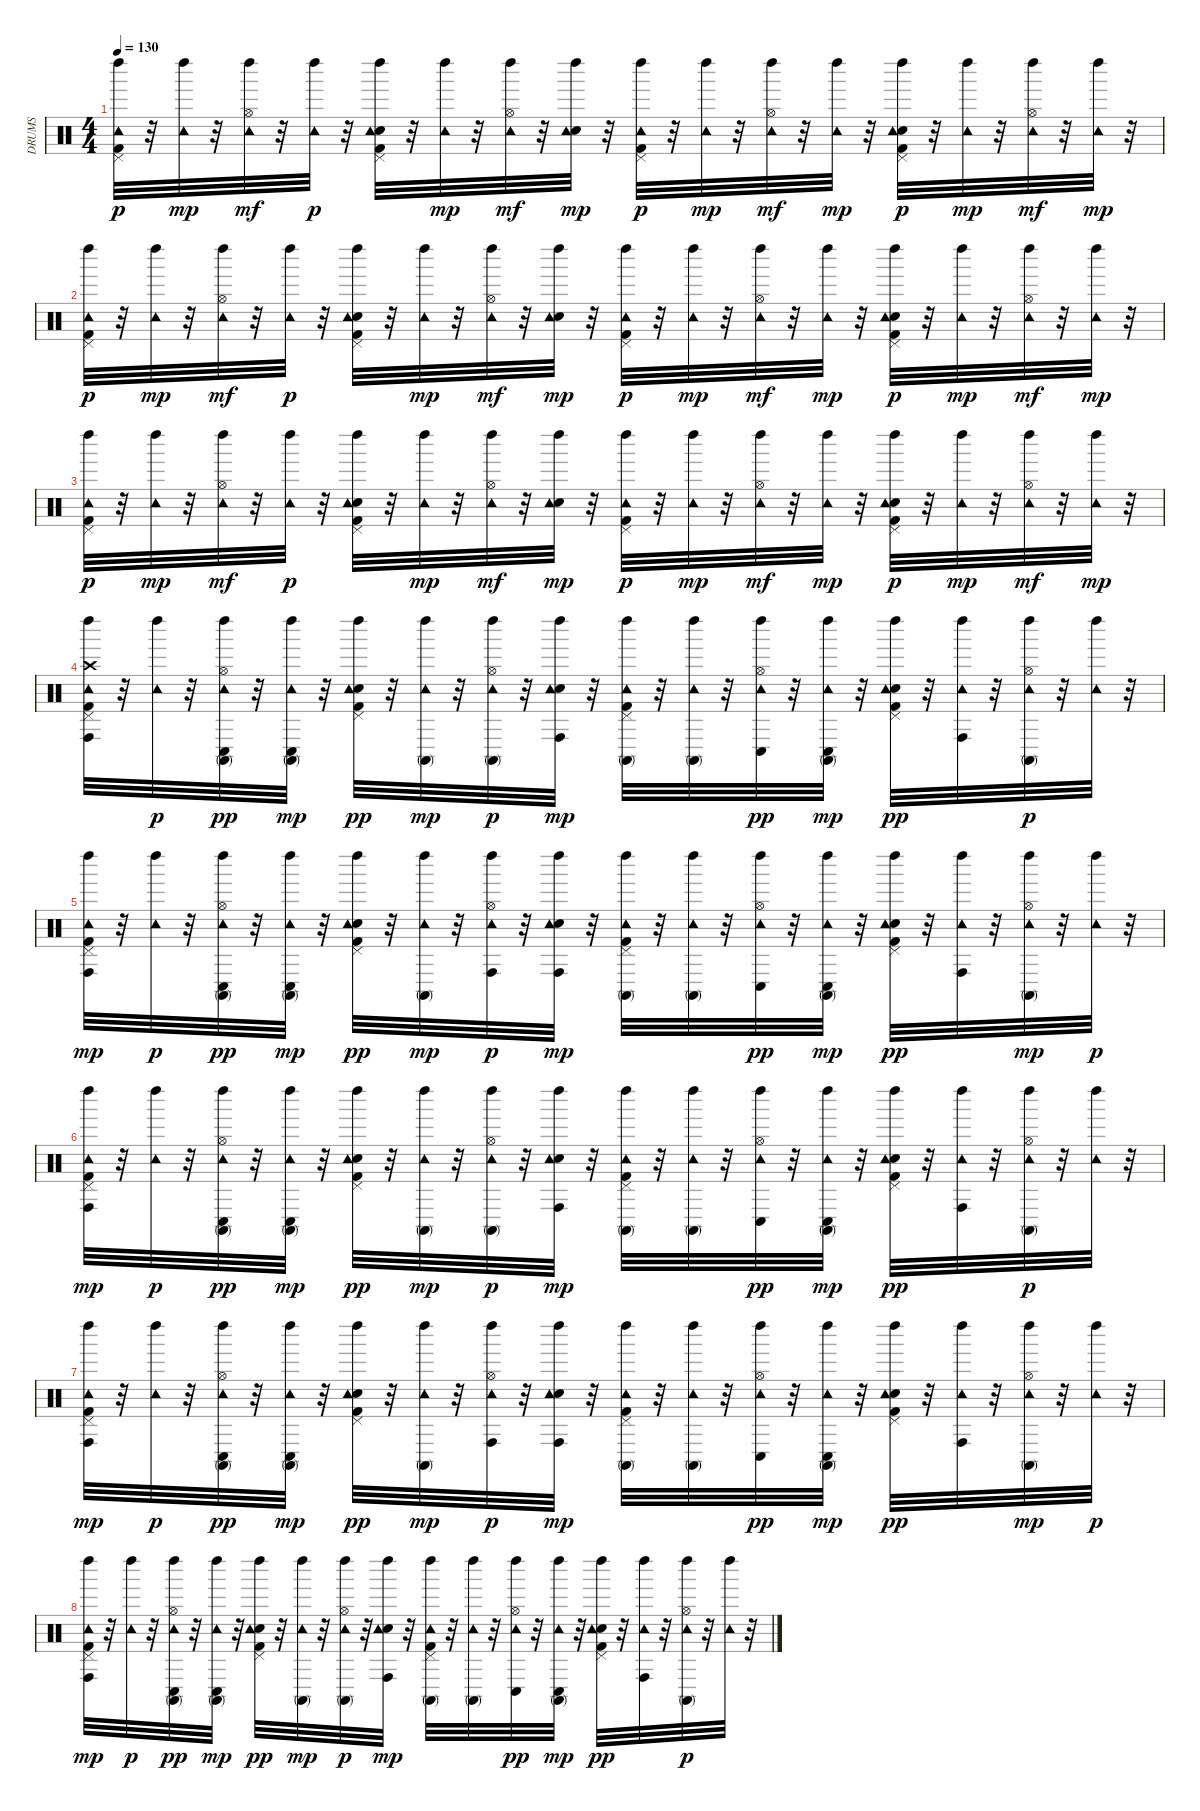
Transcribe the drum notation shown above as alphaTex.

\track ("DRUMS" "DRUMS") {instrument percussion}
\staff {score}
\articulation defaults
\ts (4 4)
\tempo 130
\clef neutral
\ks c
("Kick (hit) 2" "Pedal Hi-Hat (hit)" "Left Maraca (hit)" "Tambourine (hit)").32{dy p} r.32 ("Left Maraca (hit)" "Tambourine (hit)").32{dy mp} r.32 ("Hi-Hat (open)" "Left Maraca (hit)" "Tambourine (hit)").32{dy mf} r.32 ("Left Maraca (hit)" "Tambourine (hit)").32{dy p} r.32 ("Kick (hit) 2" "Electric Snare (hit)" "Pedal Hi-Hat (hit)" "Left Maraca (hit)" "Tambourine (hit)").32 r.32 ("Left Maraca (hit)" "Tambourine (hit)").32{dy mp} r.32 ("Hi-Hat (open)" "Left Maraca (hit)" "Tambourine (hit)").32{dy mf} r.32 ("Electric Snare (hit)" "Left Maraca (hit)" "Tambourine (hit)").32{dy mp} r.32 ("Kick (hit) 2" "Pedal Hi-Hat (hit)" "Left Maraca (hit)" "Tambourine (hit)").32{dy p} r.32 ("Left Maraca (hit)" "Tambourine (hit)").32{dy mp} r.32 ("Hi-Hat (open)" "Left Maraca (hit)" "Tambourine (hit)").32{dy mf} r.32 ("Left Maraca (hit)" "Tambourine (hit)").32{dy mp} r.32 ("Kick (hit) 2" "Electric Snare (hit)" "Pedal Hi-Hat (hit)" "Left Maraca (hit)" "Tambourine (hit)").32{dy p} r.32 ("Left Maraca (hit)" "Tambourine (hit)").32{dy mp} r.32 ("Hi-Hat (open)" "Left Maraca (hit)" "Tambourine (hit)").32{dy mf} r.32 ("Left Maraca (hit)" "Tambourine (hit)").32{dy mp} r.32 |
("Kick (hit) 2" "Pedal Hi-Hat (hit)" "Left Maraca (hit)" "Tambourine (hit)").32{dy p} r.32 ("Left Maraca (hit)" "Tambourine (hit)").32{dy mp} r.32 ("Hi-Hat (open)" "Left Maraca (hit)" "Tambourine (hit)").32{dy mf} r.32 ("Left Maraca (hit)" "Tambourine (hit)").32{dy p} r.32 ("Kick (hit) 2" "Electric Snare (hit)" "Pedal Hi-Hat (hit)" "Left Maraca (hit)" "Tambourine (hit)").32 r.32 ("Left Maraca (hit)" "Tambourine (hit)").32{dy mp} r.32 ("Hi-Hat (open)" "Left Maraca (hit)" "Tambourine (hit)").32{dy mf} r.32 ("Electric Snare (hit)" "Left Maraca (hit)" "Tambourine (hit)").32{dy mp} r.32 ("Kick (hit) 2" "Pedal Hi-Hat (hit)" "Left Maraca (hit)" "Tambourine (hit)").32{dy p} r.32 ("Left Maraca (hit)" "Tambourine (hit)").32{dy mp} r.32 ("Hi-Hat (open)" "Left Maraca (hit)" "Tambourine (hit)").32{dy mf} r.32 ("Left Maraca (hit)" "Tambourine (hit)").32{dy mp} r.32 ("Kick (hit) 2" "Electric Snare (hit)" "Pedal Hi-Hat (hit)" "Left Maraca (hit)" "Tambourine (hit)").32{dy p} r.32 ("Left Maraca (hit)" "Tambourine (hit)").32{dy mp} r.32 ("Hi-Hat (open)" "Left Maraca (hit)" "Tambourine (hit)").32{dy mf} r.32 ("Left Maraca (hit)" "Tambourine (hit)").32{dy mp} r.32 |
("Kick (hit) 2" "Pedal Hi-Hat (hit)" "Left Maraca (hit)" "Tambourine (hit)").32{dy p} r.32 ("Left Maraca (hit)" "Tambourine (hit)").32{dy mp} r.32 ("Hi-Hat (open)" "Left Maraca (hit)" "Tambourine (hit)").32{dy mf} r.32 ("Left Maraca (hit)" "Tambourine (hit)").32{dy p} r.32 ("Kick (hit) 2" "Electric Snare (hit)" "Pedal Hi-Hat (hit)" "Left Maraca (hit)" "Tambourine (hit)").32 r.32 ("Left Maraca (hit)" "Tambourine (hit)").32{dy mp} r.32 ("Hi-Hat (open)" "Left Maraca (hit)" "Tambourine (hit)").32{dy mf} r.32 ("Electric Snare (hit)" "Left Maraca (hit)" "Tambourine (hit)").32{dy mp} r.32 ("Kick (hit) 2" "Pedal Hi-Hat (hit)" "Left Maraca (hit)" "Tambourine (hit)").32{dy p} r.32 ("Left Maraca (hit)" "Tambourine (hit)").32{dy mp} r.32 ("Hi-Hat (open)" "Left Maraca (hit)" "Tambourine (hit)").32{dy mf} r.32 ("Left Maraca (hit)" "Tambourine (hit)").32{dy mp} r.32 ("Kick (hit) 2" "Electric Snare (hit)" "Pedal Hi-Hat (hit)" "Left Maraca (hit)" "Tambourine (hit)").32{dy p} r.32 ("Left Maraca (hit)" "Tambourine (hit)").32{dy mp} r.32 ("Hi-Hat (open)" "Left Maraca (hit)" "Tambourine (hit)").32{dy mf} r.32 ("Left Maraca (hit)" "Tambourine (hit)").32{dy mp} r.32 |
("Kick (hit) 2" "Pedal Hi-Hat (hit)" "Left Maraca (hit)" "Crash high (hit)" "Tambourine (hit)" "Conga high (hit)").32 r.32 ("Left Maraca (hit)" "Tambourine (hit)").32{dy p} r.32 ("Hi-Hat (open)" "Left Maraca (hit)" "Tambourine (hit)" "Conga high (mute)" "Conga low (hit)").32{dy pp} r.32 ("Left Maraca (hit)" "Tambourine (hit)" "Conga high (mute)" "Conga low (hit)").32{dy mp} r.32 ("Kick (hit) 2" "Electric Snare (hit)" "Pedal Hi-Hat (hit)" "Left Maraca (hit)" "Tambourine (hit)").32{dy pp} r.32 ("Left Maraca (hit)" "Tambourine (hit)" "Conga high (mute)").32{dy mp} r.32 ("Hi-Hat (open)" "Left Maraca (hit)" "Tambourine (hit)" "Conga high (mute)").32{dy p} r.32 ("Electric Snare (hit)" "Left Maraca (hit)" "Tambourine (hit)" "Conga high (hit)").32{dy mp} r.32 ("Kick (hit) 2" "Pedal Hi-Hat (hit)" "Left Maraca (hit)" "Tambourine (hit)" "Conga high (mute)").32 r.32 ("Left Maraca (hit)" "Tambourine (hit)" "Conga high (mute)").32 r.32 ("Hi-Hat (open)" "Left Maraca (hit)" "Tambourine (hit)" "Conga low (hit)").32{dy pp} r.32 ("Left Maraca (hit)" "Tambourine (hit)" "Conga high (mute)" "Conga low (hit)").32{dy mp} r.32 ("Kick (hit) 2" "Electric Snare (hit)" "Pedal Hi-Hat (hit)" "Left Maraca (hit)" "Tambourine (hit)").32{dy pp} r.32 ("Left Maraca (hit)" "Tambourine (hit)" "Conga high (hit)").32 r.32 ("Hi-Hat (open)" "Left Maraca (hit)" "Tambourine (hit)" "Conga high (mute)").32{dy p} r.32 ("Left Maraca (hit)" "Tambourine (hit)").32 r.32 |
("Kick (hit) 2" "Pedal Hi-Hat (hit)" "Left Maraca (hit)" "Tambourine (hit)" "Conga high (hit)").32{dy mp} r.32 ("Left Maraca (hit)" "Tambourine (hit)").32{dy p} r.32 ("Hi-Hat (open)" "Left Maraca (hit)" "Tambourine (hit)" "Conga high (mute)" "Conga low (hit)").32{dy pp} r.32 ("Left Maraca (hit)" "Tambourine (hit)" "Conga high (mute)" "Conga low (hit)").32{dy mp} r.32 ("Kick (hit) 2" "Electric Snare (hit)" "Pedal Hi-Hat (hit)" "Left Maraca (hit)" "Tambourine (hit)").32{dy pp} r.32 ("Left Maraca (hit)" "Tambourine (hit)" "Conga high (mute)").32{dy mp} r.32 ("Hi-Hat (open)" "Left Maraca (hit)" "Tambourine (hit)" "Conga high (hit)").32{dy p} r.32 ("Electric Snare (hit)" "Left Maraca (hit)" "Tambourine (hit)" "Conga high (hit)").32{dy mp} r.32 ("Kick (hit) 2" "Pedal Hi-Hat (hit)" "Left Maraca (hit)" "Tambourine (hit)" "Conga high (mute)").32 r.32 ("Left Maraca (hit)" "Tambourine (hit)" "Conga high (mute)").32 r.32 ("Hi-Hat (open)" "Left Maraca (hit)" "Tambourine (hit)" "Conga low (hit)").32{dy pp} r.32 ("Left Maraca (hit)" "Tambourine (hit)" "Conga high (mute)" "Conga low (hit)").32{dy mp} r.32 ("Kick (hit) 2" "Electric Snare (hit)" "Pedal Hi-Hat (hit)" "Left Maraca (hit)" "Tambourine (hit)").32{dy pp} r.32 ("Left Maraca (hit)" "Tambourine (hit)" "Conga high (hit)").32 r.32 ("Hi-Hat (open)" "Left Maraca (hit)" "Tambourine (hit)" "Conga high (mute)").32{dy mp} r.32 ("Left Maraca (hit)" "Tambourine (hit)").32{dy p} r.32 |
("Kick (hit) 2" "Pedal Hi-Hat (hit)" "Left Maraca (hit)" "Tambourine (hit)" "Conga high (hit)").32{dy mp} r.32 ("Left Maraca (hit)" "Tambourine (hit)").32{dy p} r.32 ("Hi-Hat (open)" "Left Maraca (hit)" "Tambourine (hit)" "Conga high (mute)" "Conga low (hit)").32{dy pp} r.32 ("Left Maraca (hit)" "Tambourine (hit)" "Conga high (mute)" "Conga low (hit)").32{dy mp} r.32 ("Kick (hit) 2" "Electric Snare (hit)" "Pedal Hi-Hat (hit)" "Left Maraca (hit)" "Tambourine (hit)").32{dy pp} r.32 ("Left Maraca (hit)" "Tambourine (hit)" "Conga high (mute)").32{dy mp} r.32 ("Hi-Hat (open)" "Left Maraca (hit)" "Tambourine (hit)" "Conga high (mute)").32{dy p} r.32 ("Electric Snare (hit)" "Left Maraca (hit)" "Tambourine (hit)" "Conga high (hit)").32{dy mp} r.32 ("Kick (hit) 2" "Pedal Hi-Hat (hit)" "Left Maraca (hit)" "Tambourine (hit)" "Conga high (mute)").32 r.32 ("Left Maraca (hit)" "Tambourine (hit)" "Conga high (mute)").32 r.32 ("Hi-Hat (open)" "Left Maraca (hit)" "Tambourine (hit)" "Conga low (hit)").32{dy pp} r.32 ("Left Maraca (hit)" "Tambourine (hit)" "Conga high (mute)" "Conga low (hit)").32{dy mp} r.32 ("Kick (hit) 2" "Electric Snare (hit)" "Pedal Hi-Hat (hit)" "Left Maraca (hit)" "Tambourine (hit)").32{dy pp} r.32 ("Left Maraca (hit)" "Tambourine (hit)" "Conga high (hit)").32 r.32 ("Hi-Hat (open)" "Left Maraca (hit)" "Tambourine (hit)" "Conga high (mute)").32{dy p} r.32 ("Left Maraca (hit)" "Tambourine (hit)").32 r.32 |
("Kick (hit) 2" "Pedal Hi-Hat (hit)" "Left Maraca (hit)" "Tambourine (hit)" "Conga high (hit)").32{dy mp} r.32 ("Left Maraca (hit)" "Tambourine (hit)").32{dy p} r.32 ("Hi-Hat (open)" "Left Maraca (hit)" "Tambourine (hit)" "Conga high (mute)" "Conga low (hit)").32{dy pp} r.32 ("Left Maraca (hit)" "Tambourine (hit)" "Conga high (mute)" "Conga low (hit)").32{dy mp} r.32 ("Kick (hit) 2" "Electric Snare (hit)" "Pedal Hi-Hat (hit)" "Left Maraca (hit)" "Tambourine (hit)").32{dy pp} r.32 ("Left Maraca (hit)" "Tambourine (hit)" "Conga high (mute)").32{dy mp} r.32 ("Hi-Hat (open)" "Left Maraca (hit)" "Tambourine (hit)" "Conga high (hit)").32{dy p} r.32 ("Electric Snare (hit)" "Left Maraca (hit)" "Tambourine (hit)" "Conga high (hit)").32{dy mp} r.32 ("Kick (hit) 2" "Pedal Hi-Hat (hit)" "Left Maraca (hit)" "Tambourine (hit)" "Conga high (mute)").32 r.32 ("Left Maraca (hit)" "Tambourine (hit)" "Conga high (mute)").32 r.32 ("Hi-Hat (open)" "Left Maraca (hit)" "Tambourine (hit)" "Conga low (hit)").32{dy pp} r.32 ("Left Maraca (hit)" "Tambourine (hit)" "Conga high (mute)" "Conga low (hit)").32{dy mp} r.32 ("Kick (hit) 2" "Electric Snare (hit)" "Pedal Hi-Hat (hit)" "Left Maraca (hit)" "Tambourine (hit)").32{dy pp} r.32 ("Left Maraca (hit)" "Tambourine (hit)" "Conga high (hit)").32 r.32 ("Hi-Hat (open)" "Left Maraca (hit)" "Tambourine (hit)" "Conga high (mute)").32{dy mp} r.32 ("Left Maraca (hit)" "Tambourine (hit)").32{dy p} r.32 |
("Kick (hit) 2" "Pedal Hi-Hat (hit)" "Left Maraca (hit)" "Tambourine (hit)" "Conga high (hit)").32{dy mp} r.32 ("Left Maraca (hit)" "Tambourine (hit)").32{dy p} r.32 ("Hi-Hat (open)" "Left Maraca (hit)" "Tambourine (hit)" "Conga high (mute)" "Conga low (hit)").32{dy pp} r.32 ("Left Maraca (hit)" "Tambourine (hit)" "Conga high (mute)" "Conga low (hit)").32{dy mp} r.32 ("Kick (hit) 2" "Electric Snare (hit)" "Pedal Hi-Hat (hit)" "Left Maraca (hit)" "Tambourine (hit)").32{dy pp} r.32 ("Left Maraca (hit)" "Tambourine (hit)" "Conga high (mute)").32{dy mp} r.32 ("Hi-Hat (open)" "Left Maraca (hit)" "Tambourine (hit)" "Conga high (mute)").32{dy p} r.32 ("Electric Snare (hit)" "Left Maraca (hit)" "Tambourine (hit)" "Conga high (hit)").32{dy mp} r.32 ("Kick (hit) 2" "Pedal Hi-Hat (hit)" "Left Maraca (hit)" "Tambourine (hit)" "Conga high (mute)").32 r.32 ("Left Maraca (hit)" "Tambourine (hit)" "Conga high (mute)").32 r.32 ("Hi-Hat (open)" "Left Maraca (hit)" "Tambourine (hit)" "Conga low (hit)").32{dy pp} r.32 ("Left Maraca (hit)" "Tambourine (hit)" "Conga high (mute)" "Conga low (hit)").32{dy mp} r.32 ("Kick (hit) 2" "Electric Snare (hit)" "Pedal Hi-Hat (hit)" "Left Maraca (hit)" "Tambourine (hit)").32{dy pp} r.32 ("Left Maraca (hit)" "Tambourine (hit)" "Conga high (hit)").32 r.32 ("Hi-Hat (open)" "Left Maraca (hit)" "Tambourine (hit)" "Conga high (mute)").32{dy p} r.32 ("Left Maraca (hit)" "Tambourine (hit)").32 r.32
